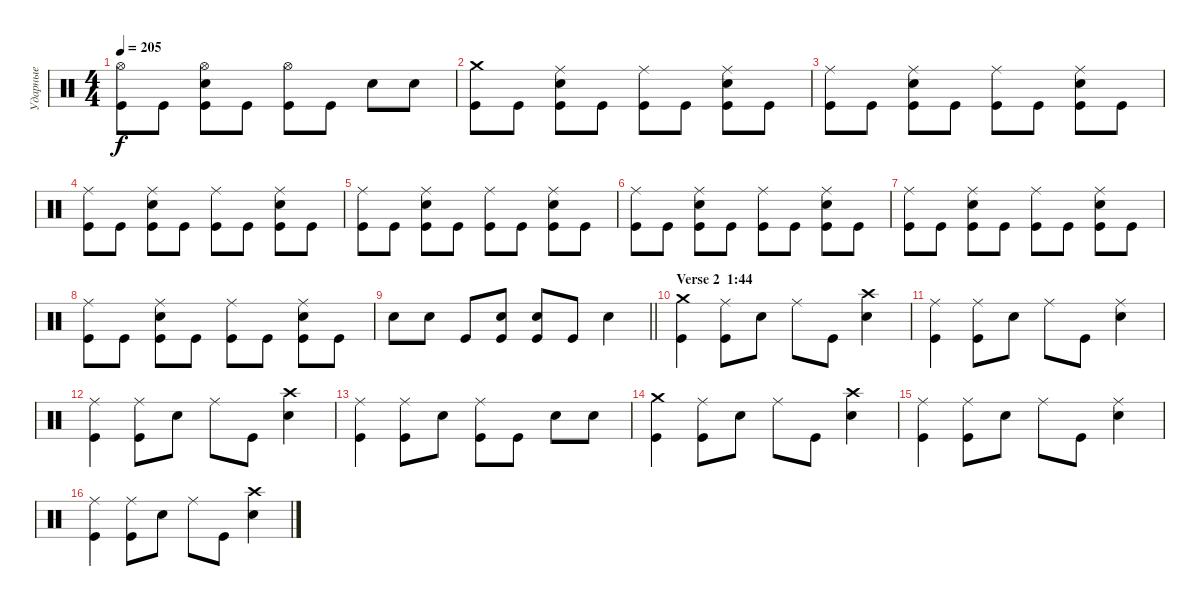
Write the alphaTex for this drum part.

\track ("Ударные" "Ударные") {instrument percussion}
\staff {score}
\articulation defaults
\ts (4 4)
\tempo 205
\clef neutral
\ks c
("Hi-Hat (open)" "Kick (hit)").8{dy f} "Kick (hit)".8 ("Hi-Hat (open)" "Snare (hit) 2" "Kick (hit)").8 "Kick (hit)".8 ("Hi-Hat (open)" "Kick (hit)").8 "Kick (hit)".8 "Snare (hit) 2".8 "Snare (hit) 2".8 |
("Crash medium (hit)" "Kick (hit)").8 "Kick (hit)".8 ("Ride (middle)" "Snare (hit) 2" "Kick (hit)").8 "Kick (hit)".8 ("Ride (middle)" "Kick (hit)").8 "Kick (hit)".8 ("Ride (middle)" "Snare (hit) 2" "Kick (hit)").8 "Kick (hit)".8 |
("Ride (middle)" "Kick (hit)").8 "Kick (hit)".8 ("Ride (middle)" "Snare (hit) 2" "Kick (hit)").8 "Kick (hit)".8 ("Ride (middle)" "Kick (hit)").8 "Kick (hit)".8 ("Ride (middle)" "Snare (hit) 2" "Kick (hit)").8 "Kick (hit)".8 |
("Ride (middle)" "Kick (hit)").8 "Kick (hit)".8 ("Ride (middle)" "Snare (hit) 2" "Kick (hit)").8 "Kick (hit)".8 ("Ride (middle)" "Kick (hit)").8 "Kick (hit)".8 ("Ride (middle)" "Snare (hit) 2" "Kick (hit)").8 "Kick (hit)".8 |
("Ride (middle)" "Kick (hit)").8 "Kick (hit)".8 ("Ride (middle)" "Snare (hit) 2" "Kick (hit)").8 "Kick (hit)".8 ("Ride (middle)" "Kick (hit)").8 "Kick (hit)".8 ("Ride (middle)" "Snare (hit) 2" "Kick (hit)").8 "Kick (hit)".8 |
("Ride (middle)" "Kick (hit)").8 "Kick (hit)".8 ("Ride (middle)" "Snare (hit) 2" "Kick (hit)").8 "Kick (hit)".8 ("Ride (middle)" "Kick (hit)").8 "Kick (hit)".8 ("Ride (middle)" "Snare (hit) 2" "Kick (hit)").8 "Kick (hit)".8 |
("Ride (middle)" "Kick (hit)").8 "Kick (hit)".8 ("Ride (middle)" "Snare (hit) 2" "Kick (hit)").8 "Kick (hit)".8 ("Ride (middle)" "Kick (hit)").8 "Kick (hit)".8 ("Ride (middle)" "Snare (hit) 2" "Kick (hit)").8 "Kick (hit)".8 |
("Ride (middle)" "Kick (hit)").8 "Kick (hit)".8 ("Ride (middle)" "Snare (hit) 2" "Kick (hit)").8 "Kick (hit)".8 ("Ride (middle)" "Kick (hit)").8 "Kick (hit)".8 ("Ride (middle)" "Snare (hit) 2" "Kick (hit)").8 "Kick (hit)".8 |
\barLineRight lightlight "Snare (hit) 2".8 "Snare (hit) 2".8 "Kick (hit)".8
("Snare (hit) 2" "Kick (hit)").8 ("Snare (hit) 2" "Kick (hit)").8 "Kick (hit)".8 "Snare (hit) 2".4 |
\section ("" "Verse 2  1:44")
("Crash medium (hit)" "Kick (hit)").4 ("Ride (middle)" "Kick (hit)").8 "Snare (hit) 2".8 "Ride (middle)".8 "Kick (hit)".8 ("Crash high (hit)" "Snare (hit) 2").4 |
("Ride (middle)" "Kick (hit)").4 ("Ride (middle)" "Kick (hit)").8 "Snare (hit) 2".8 "Ride (middle)".8 "Kick (hit)".8 ("Ride (middle)" "Snare (hit) 2").4 |
("Ride (middle)" "Kick (hit)").4 ("Ride (middle)" "Kick (hit)").8 "Snare (hit) 2".8 "Ride (middle)".8 "Kick (hit)".8 ("Crash high (hit)" "Snare (hit) 2").4 |
("Ride (middle)" "Kick (hit)").4 ("Ride (middle)" "Kick (hit)").8 "Snare (hit) 2".8 ("Ride (middle)" "Kick (hit)").8 "Kick (hit)".8 "Snare (hit) 2".8 "Snare (hit) 2".8 |
("Crash medium (hit)" "Kick (hit)").4 ("Ride (middle)" "Kick (hit)").8 "Snare (hit) 2".8 "Ride (middle)".8 "Kick (hit)".8 ("Crash high (hit)" "Snare (hit) 2").4 |
("Ride (middle)" "Kick (hit)").4 ("Ride (middle)" "Kick (hit)").8 "Snare (hit) 2".8 "Ride (middle)".8 "Kick (hit)".8 ("Ride (middle)" "Snare (hit) 2").4 |
("Ride (middle)" "Kick (hit)").4 ("Ride (middle)" "Kick (hit)").8 "Snare (hit) 2".8 "Ride (middle)".8 "Kick (hit)".8 ("Crash high (hit)" "Snare (hit) 2").4
